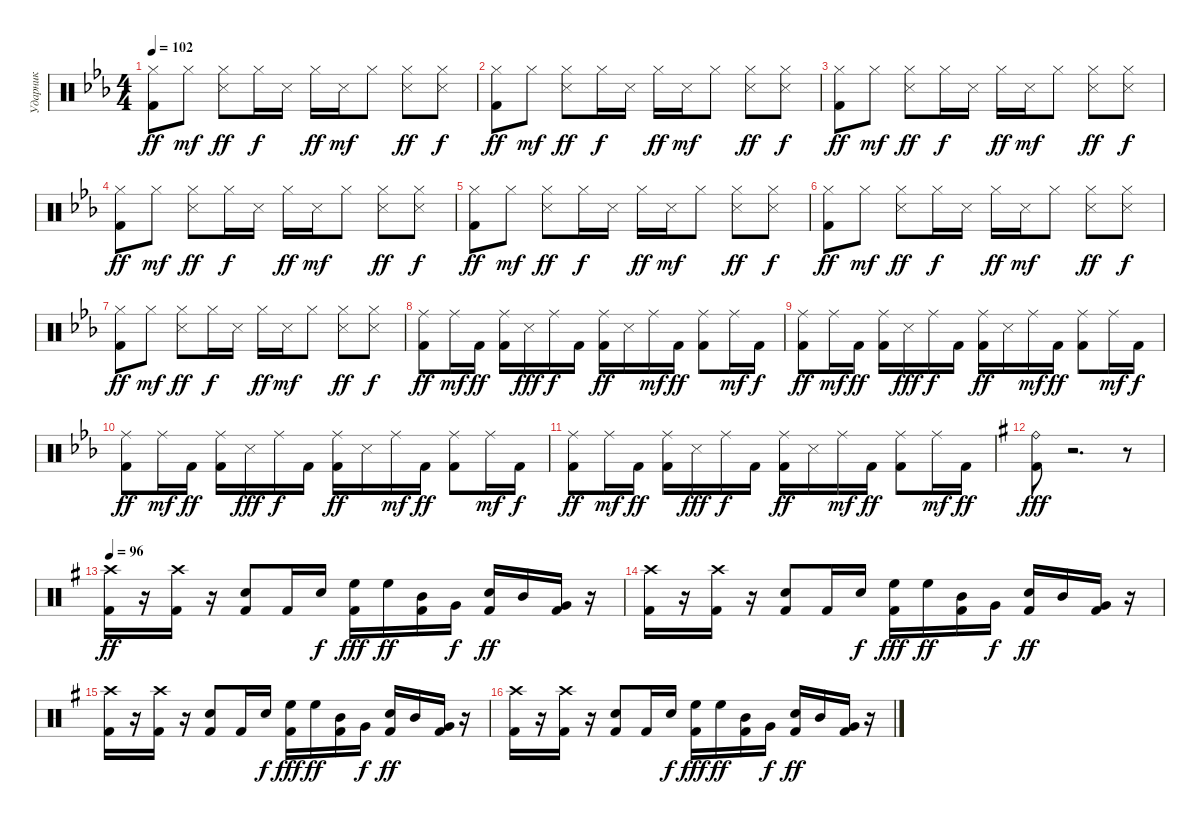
\track ("Ударник" "Ударник") {instrument percussion}
\staff {score}
\articulation defaults
\ts (4 4)
\tempo 102
\clef neutral
\ks cminor
("Kick (hit) 2" "Hi-Hat (closed)").8{dy ff} "Hi-Hat (closed)".8{dy mf} ("Snare (side stick) 3" "Hi-Hat (closed)").8{dy ff} "Hi-Hat (closed)".16{dy f} "Snare (side stick) 3".16 "Hi-Hat (closed)".16{dy ff} "Snare (side stick) 3".16{dy mf} "Hi-Hat (closed)".8 ("Snare (side stick) 3" "Hi-Hat (closed)").8{dy ff} ("Snare (side stick) 3" "Hi-Hat (closed)").8{dy f} |
("Kick (hit) 2" "Hi-Hat (closed)").8{dy ff} "Hi-Hat (closed)".8{dy mf} ("Snare (side stick) 3" "Hi-Hat (closed)").8{dy ff} "Hi-Hat (closed)".16{dy f} "Snare (side stick) 3".16 "Hi-Hat (closed)".16{dy ff} "Snare (side stick) 3".16{dy mf} "Hi-Hat (closed)".8 ("Snare (side stick) 3" "Hi-Hat (closed)").8{dy ff} ("Snare (side stick) 3" "Hi-Hat (closed)").8{dy f} |
("Kick (hit) 2" "Hi-Hat (closed)").8{dy ff} "Hi-Hat (closed)".8{dy mf} ("Snare (side stick) 3" "Hi-Hat (closed)").8{dy ff} "Hi-Hat (closed)".16{dy f} "Snare (side stick) 3".16 "Hi-Hat (closed)".16{dy ff} "Snare (side stick) 3".16{dy mf} "Hi-Hat (closed)".8 ("Snare (side stick) 3" "Hi-Hat (closed)").8{dy ff} ("Snare (side stick) 3" "Hi-Hat (closed)").8{dy f} |
("Kick (hit) 2" "Hi-Hat (closed)").8{dy ff} "Hi-Hat (closed)".8{dy mf} ("Snare (side stick) 3" "Hi-Hat (closed)").8{dy ff} "Hi-Hat (closed)".16{dy f} "Snare (side stick) 3".16 "Hi-Hat (closed)".16{dy ff} "Snare (side stick) 3".16{dy mf} "Hi-Hat (closed)".8 ("Snare (side stick) 3" "Hi-Hat (closed)").8{dy ff} ("Snare (side stick) 3" "Hi-Hat (closed)").8{dy f} |
("Kick (hit) 2" "Hi-Hat (closed)").8{dy ff} "Hi-Hat (closed)".8{dy mf} ("Snare (side stick) 3" "Hi-Hat (closed)").8{dy ff} "Hi-Hat (closed)".16{dy f} "Snare (side stick) 3".16 "Hi-Hat (closed)".16{dy ff} "Snare (side stick) 3".16{dy mf} "Hi-Hat (closed)".8 ("Snare (side stick) 3" "Hi-Hat (closed)").8{dy ff} ("Snare (side stick) 3" "Hi-Hat (closed)").8{dy f} |
("Kick (hit) 2" "Hi-Hat (closed)").8{dy ff} "Hi-Hat (closed)".8{dy mf} ("Snare (side stick) 3" "Hi-Hat (closed)").8{dy ff} "Hi-Hat (closed)".16{dy f} "Snare (side stick) 3".16 "Hi-Hat (closed)".16{dy ff} "Snare (side stick) 3".16{dy mf} "Hi-Hat (closed)".8 ("Snare (side stick) 3" "Hi-Hat (closed)").8{dy ff} ("Snare (side stick) 3" "Hi-Hat (closed)").8{dy f} |
("Kick (hit) 2" "Hi-Hat (closed)").8{dy ff} "Hi-Hat (closed)".8{dy mf} ("Snare (side stick) 3" "Hi-Hat (closed)").8{dy ff} "Hi-Hat (closed)".16{dy f} "Snare (side stick) 3".16 "Hi-Hat (closed)".16{dy ff} "Snare (side stick) 3".16{dy mf} "Hi-Hat (closed)".8 ("Snare (side stick) 3" "Hi-Hat (closed)").8{dy ff} ("Snare (side stick) 3" "Hi-Hat (closed)").8{dy f} |
("Kick (hit) 2" "Ride (middle)").8{dy ff} "Ride (middle)".16{dy mf} "Kick (hit) 2".16{dy ff} ("Kick (hit) 2" "Ride (middle)").16 "Snare (side stick) 3".16{dy fff} "Ride (middle)".16{dy f} "Kick (hit) 2".16 ("Kick (hit) 2" "Ride (middle)").16{dy ff} "Snare (side stick) 3".16 "Ride (middle)".16{dy mf} "Kick (hit) 2".16{dy ff} ("Kick (hit) 2" "Ride (middle)").8 "Ride (middle)".16{dy mf} "Kick (hit) 2".16{dy f} |
("Kick (hit) 2" "Ride (middle)").8{dy ff} "Ride (middle)".16{dy mf} "Kick (hit) 2".16{dy ff} ("Kick (hit) 2" "Ride (middle)").16 "Snare (side stick) 3".16{dy fff} "Ride (middle)".16{dy f} "Kick (hit) 2".16 ("Kick (hit) 2" "Ride (middle)").16{dy ff} "Snare (side stick) 3".16 "Ride (middle)".16{dy mf} "Kick (hit) 2".16{dy ff} ("Kick (hit) 2" "Ride (middle)").8 "Ride (middle)".16{dy mf} "Kick (hit) 2".16{dy f} |
("Kick (hit) 2" "Ride (middle)").8{dy ff} "Ride (middle)".16{dy mf} "Kick (hit) 2".16{dy ff} ("Kick (hit) 2" "Ride (middle)").16 "Snare (side stick) 3".16{dy fff} "Ride (middle)".16{dy f} "Kick (hit) 2".16 ("Kick (hit) 2" "Ride (middle)").16{dy ff} "Snare (side stick) 3".16 "Ride (middle)".16{dy mf} "Kick (hit) 2".16{dy ff} ("Kick (hit) 2" "Ride (middle)").8 "Ride (middle)".16{dy mf} "Kick (hit) 2".16{dy f} |
("Kick (hit) 2" "Ride (middle)").8{dy ff} "Ride (middle)".16{dy mf} "Kick (hit) 2".16{dy ff} ("Kick (hit) 2" "Ride (middle)").16 "Snare (side stick) 3".16{dy fff} "Ride (middle)".16{dy f} "Kick (hit) 2".16 ("Kick (hit) 2" "Ride (middle)").16{dy ff} "Snare (side stick) 3".16 "Ride (middle)".16{dy mf} "Kick (hit) 2".16{dy ff} ("Kick (hit) 2" "Ride (middle)").8 "Ride (middle)".16{dy mf} "Kick (hit) 2".16{dy ff} |
\ks eminor
("Kick (hit) 2" "Ride (bell)").8{dy fff} r.2{d} r.8 |
\tempo 96
("Kick (hit) 2" "Crash high (hit)").16{dy ff} r.16 ("Kick (hit) 2" "Crash high (hit)").16 r.16 ("Kick (hit) 2" "Snare (hit) 2").8 "Kick (hit) 2".16 "Snare (hit) 2".16{dy f} ("Kick (hit) 2" "High Floor Tom (hit)").16{dy fff} "High Floor Tom (hit)".16{dy ff} ("Kick (hit) 2" "Mid Tom (hit)").16 "Very Low Tom (hit)".16{dy f} ("Kick (hit) 2" "Snare (hit) 2").16{dy ff} "Mid Tom (hit)".16 ("Kick (hit) 2" "Very Low Tom (hit)").16 r.16 |
("Kick (hit) 2" "Crash high (hit)").16 r.16 ("Kick (hit) 2" "Crash high (hit)").16 r.16 ("Kick (hit) 2" "Snare (hit) 2").8 "Kick (hit) 2".16 "Snare (hit) 2".16{dy f} ("Kick (hit) 2" "High Floor Tom (hit)").16{dy fff} "High Floor Tom (hit)".16{dy ff} ("Kick (hit) 2" "Mid Tom (hit)").16 "Very Low Tom (hit)".16{dy f} ("Kick (hit) 2" "Snare (hit) 2").16{dy ff} "Mid Tom (hit)".16 ("Kick (hit) 2" "Very Low Tom (hit)").16 r.16 |
("Kick (hit) 2" "Crash high (hit)").16 r.16 ("Kick (hit) 2" "Crash high (hit)").16 r.16 ("Kick (hit) 2" "Snare (hit) 2").8 "Kick (hit) 2".16 "Snare (hit) 2".16{dy f} ("Kick (hit) 2" "High Floor Tom (hit)").16{dy fff} "High Floor Tom (hit)".16{dy ff} ("Kick (hit) 2" "Mid Tom (hit)").16 "Very Low Tom (hit)".16{dy f} ("Kick (hit) 2" "Snare (hit) 2").16{dy ff} "Mid Tom (hit)".16 ("Kick (hit) 2" "Very Low Tom (hit)").16 r.16 |
("Kick (hit) 2" "Crash high (hit)").16 r.16 ("Kick (hit) 2" "Crash high (hit)").16 r.16 ("Kick (hit) 2" "Snare (hit) 2").8 "Kick (hit) 2".16 "Snare (hit) 2".16{dy f} ("Kick (hit) 2" "High Floor Tom (hit)").16{dy fff} "High Floor Tom (hit)".16{dy ff} ("Kick (hit) 2" "Mid Tom (hit)").16 "Very Low Tom (hit)".16{dy f} ("Kick (hit) 2" "Snare (hit) 2").16{dy ff} "Mid Tom (hit)".16 ("Kick (hit) 2" "Very Low Tom (hit)").16 r.16
